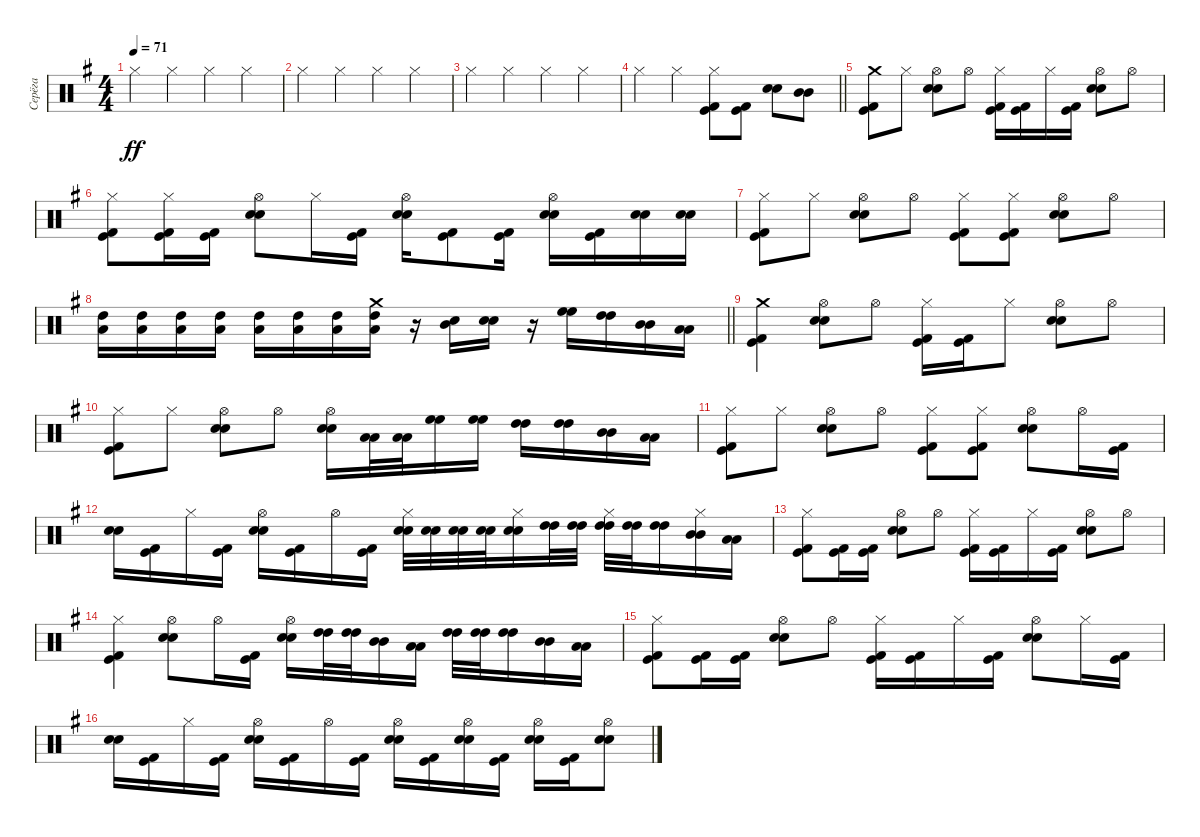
\track ("Серёга" "Серёга") {instrument percussion}
\staff {score}
\articulation defaults
\ts (4 4)
\tempo 71
\clef neutral
\ks eminor "Hi-Hat (closed)".4{dy ff} "Hi-Hat (closed)".4 "Hi-Hat (closed)".4 "Hi-Hat (closed)".4
|
"Hi-Hat (closed)".4 "Hi-Hat (closed)".4 "Hi-Hat (closed)".4 "Hi-Hat (closed)".4 |
"Hi-Hat (closed)".4 "Hi-Hat (closed)".4 "Hi-Hat (closed)".4 "Hi-Hat (closed)".4 |
\barLineRight lightlight "Hi-Hat (closed)".4 "Hi-Hat (closed)".4
("Hi-Hat (closed)" "Kick (hit)" "Kick (hit) 2").8 ("Kick (hit) 2" "Kick (hit)").8 ("Electric Snare (hit)" "Snare (hit) 2").8 ("Mid Tom (hit)" "Mid Tom (hit)").8 |
("Crash medium (hit)" "Kick (hit) 2" "Kick (hit)").8 "Hi-Hat (closed)".8 ("Hi-Hat (open)" "Snare (hit) 2" "Electric Snare (hit)").8 "Hi-Hat (open)".8 ("Hi-Hat (closed)" "Kick (hit)" "Kick (hit) 2").16 ("Kick (hit)" "Kick (hit) 2").16 "Hi-Hat (closed)".16 ("Kick (hit)" "Kick (hit) 2").16 ("Hi-Hat (open)" "Snare (hit) 2" "Electric Snare (hit)").8 "Hi-Hat (open)".8 |
("Hi-Hat (closed)" "Kick (hit)" "Kick (hit) 2").8 ("Hi-Hat (closed)" "Kick (hit)" "Kick (hit) 2").16 ("Kick (hit)" "Kick (hit) 2").16 ("Hi-Hat (open)" "Snare (hit) 2" "Electric Snare (hit)").8 "Hi-Hat (closed)".16 ("Kick (hit)" "Kick (hit) 2").16 ("Hi-Hat (open)" "Snare (hit) 2" "Electric Snare (hit)").16 ("Kick (hit) 2" "Kick (hit)").8 ("Kick (hit) 2" "Kick (hit)").16 ("Hi-Hat (open)" "Electric Snare (hit)" "Snare (hit) 2").16 ("Kick (hit)" "Kick (hit) 2").16 ("Electric Snare (hit)" "Snare (hit) 2").16 ("Electric Snare (hit)" "Snare (hit) 2").16 |
("Hi-Hat (closed)" "Kick (hit) 2" "Kick (hit)").8 "Hi-Hat (closed)".8 ("Hi-Hat (open)" "Electric Snare (hit)" "Snare (hit) 2").8 "Hi-Hat (open)".8 ("Hi-Hat (closed)" "Kick (hit)" "Kick (hit) 2").8 ("Hi-Hat (closed)" "Kick (hit)" "Kick (hit) 2").8 ("Hi-Hat (open)" "Electric Snare (hit)" "Snare (hit) 2").8 "Hi-Hat (open)".8 |
\barLineRight lightlight
("Low Tom (hit)" "High Tom (hit)").16 ("Low Tom (hit)" "High Tom (hit)").16 ("Low Tom (hit)" "High Tom (hit)").16 ("Low Tom (hit)" "High Tom (hit)").16 ("Low Tom (hit)" "High Tom (hit)").16 ("Low Tom (hit)" "High Tom (hit)").16 ("Low Tom (hit)" "High Tom (hit)").16 ("Crash medium (hit)" "Low Tom (hit)" "High Tom (hit)").16 r.16 ("Mid Tom (hit)" "Snare (hit) 2").16 ("Snare (hit) 2" "Electric Snare (hit)").16 r.16 ("High Floor Tom (hit)" "High Floor Tom (hit)").16 ("High Tom (hit)" "High Tom (hit)").16 ("Mid Tom (hit)" "Mid Tom (hit)").16 ("Low Tom (hit)" "Low Tom (hit)").16 |
("Crash medium (hit)" "Kick (hit)" "Kick (hit) 2").4 ("Hi-Hat (open)" "Electric Snare (hit)" "Snare (hit) 2").8 "Hi-Hat (open)".8 ("Hi-Hat (closed)" "Kick (hit)" "Kick (hit) 2").16 ("Kick (hit)" "Kick (hit) 2").16 "Hi-Hat (closed)".8 ("Hi-Hat (open)" "Electric Snare (hit)" "Snare (hit) 2").8 "Hi-Hat (open)".8 |
("Hi-Hat (closed)" "Kick (hit)" "Kick (hit) 2").8 "Hi-Hat (closed)".8 ("Hi-Hat (open)" "Electric Snare (hit)" "Snare (hit) 2").8 "Hi-Hat (open)".8 ("Hi-Hat (open)" "Electric Snare (hit)" "Snare (hit) 2").16 ("Low Tom (hit)" "Low Tom (hit)").32 ("Low Tom (hit)" "Low Tom (hit)").32 ("High Floor Tom (hit)" "High Floor Tom (hit)").16 ("High Floor Tom (hit)" "High Floor Tom (hit)").16 ("High Tom (hit)" "High Tom (hit)").16 ("High Tom (hit)" "High Tom (hit)").16 ("Mid Tom (hit)" "Mid Tom (hit)").16 ("Low Tom (hit)" "Low Tom (hit)").16 |
("Hi-Hat (closed)" "Kick (hit)" "Kick (hit) 2").8 "Hi-Hat (closed)".8 ("Hi-Hat (open)" "Electric Snare (hit)" "Snare (hit) 2").8 "Hi-Hat (open)".8 ("Hi-Hat (closed)" "Kick (hit)" "Kick (hit) 2").8 ("Hi-Hat (closed)" "Kick (hit)" "Kick (hit) 2").8 ("Hi-Hat (open)" "Electric Snare (hit)" "Snare (hit) 2").8 "Hi-Hat (open)".16 ("Kick (hit)" "Kick (hit) 2").16 |
("Electric Snare (hit)" "Snare (hit) 2").16 ("Kick (hit)" "Kick (hit) 2").16 "Hi-Hat (closed)".16 ("Kick (hit)" "Kick (hit) 2").16 ("Hi-Hat (open)" "Electric Snare (hit)" "Snare (hit) 2").16 ("Kick (hit)" "Kick (hit) 2").16 "Hi-Hat (open)".16 ("Kick (hit)" "Kick (hit) 2").16 ("Hi-Hat (closed)" "Snare (hit) 2" "Electric Snare (hit)").32 ("Snare (hit) 2" "Electric Snare (hit)").32 ("Snare (hit) 2" "Electric Snare (hit)").32 ("Snare (hit) 2" "Electric Snare (hit)").32 ("Hi-Hat (closed)" "Snare (hit) 2" "Electric Snare (hit)").16 ("High Tom (hit)" "High Tom (hit)").32 ("High Tom (hit)" "High Tom (hit)").32 ("Hi-Hat (closed)" "High Tom (hit)" "High Tom (hit)").32 ("High Tom (hit)" "High Tom (hit)").32 ("High Tom (hit)" "High Tom (hit)").16 ("Hi-Hat (closed)" "Mid Tom (hit)" "Mid Tom (hit)").16 ("Low Tom (hit)" "Low Tom (hit)").16 |
("Hi-Hat (closed)" "Kick (hit)" "Kick (hit) 2").8 ("Kick (hit)" "Kick (hit) 2").16 ("Kick (hit)" "Kick (hit) 2").16 ("Hi-Hat (open)" "Electric Snare (hit)" "Snare (hit) 2").8 "Hi-Hat (open)".8 ("Hi-Hat (closed)" "Kick (hit)" "Kick (hit) 2").16 ("Kick (hit)" "Kick (hit) 2").16 "Hi-Hat (closed)".16 ("Kick (hit)" "Kick (hit) 2").16 ("Hi-Hat (open)" "Electric Snare (hit)" "Snare (hit) 2").8 "Hi-Hat (open)".8 |
("Hi-Hat (closed)" "Kick (hit)" "Kick (hit) 2").4 ("Hi-Hat (open)" "Electric Snare (hit)" "Snare (hit) 2").8 "Hi-Hat (open)".16 ("Kick (hit)" "Kick (hit) 2").16 ("Hi-Hat (open)" "Snare (hit) 2" "Electric Snare (hit)").16 ("High Tom (hit)" "High Tom (hit)").32 ("High Tom (hit)" "High Tom (hit)").32 ("Mid Tom (hit)" "Mid Tom (hit)").16 ("Low Tom (hit)" "Low Tom (hit)").16 ("High Tom (hit)" "High Tom (hit)").32 ("High Tom (hit)" "High Tom (hit)").32 ("High Tom (hit)" "High Tom (hit)").16 ("Mid Tom (hit)" "Mid Tom (hit)").16 ("Low Tom (hit)" "Low Tom (hit)").16 |
("Hi-Hat (closed)" "Kick (hit)" "Kick (hit) 2").8 ("Kick (hit)" "Kick (hit) 2").16 ("Kick (hit)" "Kick (hit) 2").16 ("Hi-Hat (open)" "Electric Snare (hit)" "Snare (hit) 2").8 "Hi-Hat (open)".8 ("Hi-Hat (closed)" "Kick (hit)" "Kick (hit) 2").16 ("Kick (hit)" "Kick (hit) 2").16 "Hi-Hat (closed)".16 ("Kick (hit)" "Kick (hit) 2").16 ("Hi-Hat (open)" "Electric Snare (hit)" "Snare (hit) 2").8 "Hi-Hat (closed)".16 ("Kick (hit)" "Kick (hit) 2").16 |
("Electric Snare (hit)" "Snare (hit) 2").16 ("Kick (hit)" "Kick (hit) 2").16 "Hi-Hat (closed)".16 ("Kick (hit)" "Kick (hit) 2").16 ("Hi-Hat (open)" "Snare (hit) 2" "Electric Snare (hit)").16 ("Kick (hit)" "Kick (hit) 2").16 "Hi-Hat (open)".16 ("Kick (hit)" "Kick (hit) 2").16 ("Hi-Hat (open)" "Electric Snare (hit)" "Snare (hit) 2").16 ("Kick (hit)" "Kick (hit) 2").16 ("Hi-Hat (open)" "Electric Snare (hit)" "Snare (hit) 2").16 ("Kick (hit)" "Kick (hit) 2").16 ("Hi-Hat (open)" "Electric Snare (hit)" "Snare (hit) 2").16 ("Kick (hit)" "Kick (hit) 2").16 ("Hi-Hat (open)" "Electric Snare (hit)" "Snare (hit) 2").8
